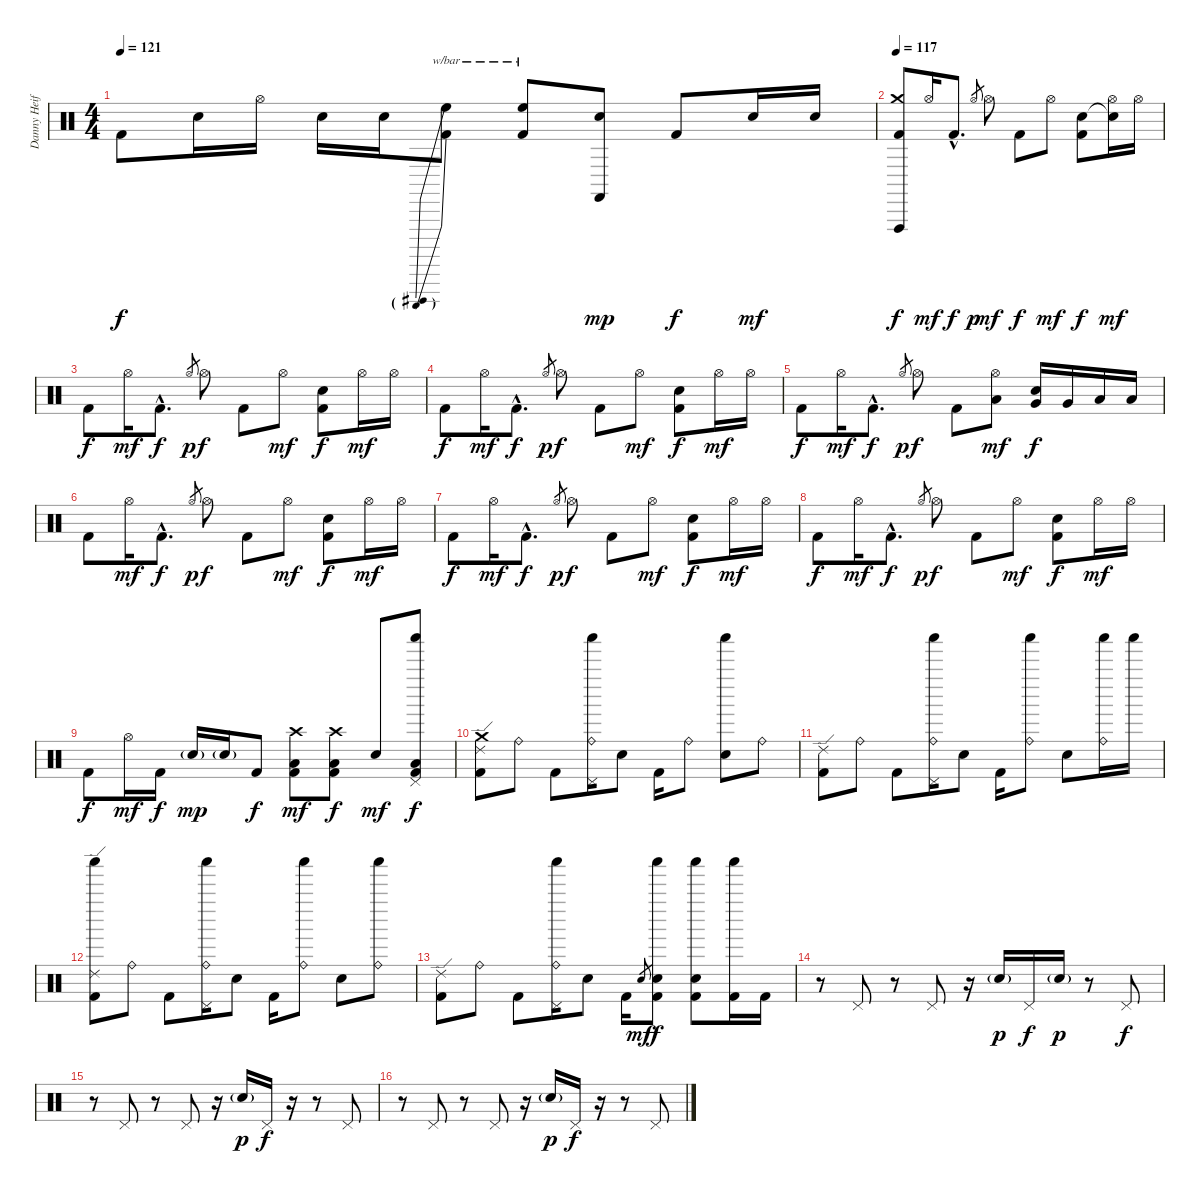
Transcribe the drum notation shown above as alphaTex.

\track ("Danny Heifetz - Drums" "Danny Heif") {instrument percussion}
\staff {score}
\articulation defaults
\ts (4 4)
\tempo 121
\clef neutral
\ks c "Kick (hit) 2".8{dy f} "Electric Snare (hit)".16 "Hi-Hat (open)".16 "Electric Snare (hit)".16 "Electric Snare (hit)".16
("High Floor Tom (hit)" "Kick (hit) 2").8{tbe (predive default 0 20 60 20)} ("High Floor Tom (hit)" "Kick (hit) 2").8{tbe (hold default 0 20 60 20)} ("Castanets (hit)" "Electric Snare (hit)").8{dy mp} "Kick (hit) 2".8{dy f} "Electric Snare (hit)".16{dy mf} "Electric Snare (hit)".16 |
\tempo 117
("Crash medium (hit)" "Vibraslap (hit)" "Kick (hit) 2").8{dy f} "Hi-Hat (open)".16{dy mf} "Kick (hit) 2"{hac}.8{d dy f} "Hi-Hat (open)".8{gr dy p} "Hi-Hat (open)".8{dy mf} "Kick (hit) 2".8{dy f} "Hi-Hat (open)".8{dy mf} ("Electric Snare (hit)" "Kick (hit) 2").8{dy f} ("Snare (hit)"{t} "Hi-Hat (open)").16{dy mf} "Hi-Hat (open)".16 |
"Kick (hit) 2".8{dy f} "Hi-Hat (open)".16{dy mf} "Kick (hit) 2"{hac}.8{d dy f} "Hi-Hat (open)".8{gr dy p} "Hi-Hat (open)".8{dy f} "Kick (hit) 2".8 "Hi-Hat (open)".8{dy mf} ("Electric Snare (hit)" "Kick (hit) 2").8{dy f} "Hi-Hat (open)".16{dy mf} "Hi-Hat (open)".16 |
"Kick (hit) 2".8{dy f} "Hi-Hat (open)".16{dy mf} "Kick (hit) 2"{hac}.8{d dy f} "Hi-Hat (open)".8{gr dy p} "Hi-Hat (open)".8{dy f} "Kick (hit) 2".8 "Hi-Hat (open)".8{dy mf} ("Electric Snare (hit)" "Kick (hit) 2").8{dy f} "Hi-Hat (open)".16{dy mf} "Hi-Hat (open)".16 |
"Kick (hit) 2".8{dy f} "Hi-Hat (open)".16{dy mf} "Kick (hit) 2"{hac}.8{d dy f} "Hi-Hat (open)".8{gr dy p} "Hi-Hat (open)".8{dy f} "Kick (hit) 2".8 ("Hi-Hat (open)" "Low Tom (hit)").8{dy mf} ("Electric Snare (hit)" "Very Low Tom (hit)").16{dy f} "Very Low Tom (hit)".16 "Low Floor Tom (hit)".16 "Low Floor Tom (hit)".16 |
"Kick (hit) 2".8 "Hi-Hat (open)".16{dy mf} "Kick (hit) 2"{hac}.8{d dy f} "Hi-Hat (open)".8{gr dy p} "Hi-Hat (open)".8{dy f} "Kick (hit) 2".8 "Hi-Hat (open)".8{dy mf} ("Electric Snare (hit)" "Kick (hit) 2").8{dy f} "Hi-Hat (open)".16{dy mf} "Hi-Hat (open)".16 |
"Kick (hit) 2".8{dy f} "Hi-Hat (open)".16{dy mf} "Kick (hit) 2"{hac}.8{d dy f} "Hi-Hat (open)".8{gr dy p} "Hi-Hat (open)".8{dy f} "Kick (hit) 2".8 "Hi-Hat (open)".8{dy mf} ("Electric Snare (hit)" "Kick (hit) 2").8{dy f} "Hi-Hat (open)".16{dy mf} "Hi-Hat (open)".16 |
"Kick (hit) 2".8{dy f} "Hi-Hat (open)".16{dy mf} "Kick (hit) 2"{hac}.8{d dy f} "Hi-Hat (open)".8{gr dy p} "Hi-Hat (open)".8{dy f} "Kick (hit) 2".8 "Hi-Hat (open)".8{dy mf} ("Electric Snare (hit)" "Kick (hit) 2").8{dy f} "Hi-Hat (open)".16{dy mf} "Hi-Hat (open)".16 |
"Kick (hit) 2".8{dy f} "Hi-Hat (open)".16{dy mf} "Kick (hit) 2".16{dy f} "Electric Snare (hit)"{g}.16{dy mp} "Electric Snare (hit)"{g}.16 "Kick (hit) 2".8{dy f} ("Crash high (hit)" "Low Tom (hit)" "Kick (hit) 2").8{dy mf} ("Crash high (hit)" "Low Tom (hit)" "Kick (hit) 2").8{dy f} "Electric Snare (hit)".8{dy mf} ("Shaker (hit)" "Low Tom (hit)" "Pedal Hi-Hat (hit)" "Kick (hit) 2").8{dy f} |
("Crash medium (hit)" "Ride (edge) 2" "Kick (hit) 2").8 "Ride (bell)".8 "Kick (hit) 2".8 ("Shaker (hit)" "Ride (bell)" "Pedal Hi-Hat (hit)").16 "Electric Snare (hit)".8 "Kick (hit) 2".16 "Ride (bell)".8 ("Shaker (hit)" "Electric Snare (hit)").8 "Ride (bell)".8 |
("Ride (edge) 2" "Kick (hit) 2").8 "Ride (bell)".8 "Kick (hit) 2".8 ("Shaker (hit)" "Ride (bell)" "Pedal Hi-Hat (hit)").16 "Electric Snare (hit)".8 "Kick (hit) 2".16 ("Shaker (hit)" "Ride (bell)").8 "Electric Snare (hit)".8 ("Shaker (hit)" "Ride (bell)").16 "Shaker (hit)".16 |
("Shaker (hit)" "Ride (edge) 2" "Kick (hit) 2").8 "Ride (bell)".8 "Kick (hit) 2".8 ("Shaker (hit)" "Ride (bell)" "Pedal Hi-Hat (hit)").16 "Electric Snare (hit)".8 "Kick (hit) 2".16 ("Shaker (hit)" "Ride (bell)").8 "Electric Snare (hit)".8 ("Shaker (hit)" "Ride (bell)").8 |
("Ride (edge) 2" "Kick (hit) 2").8 "Ride (bell)".8 "Kick (hit) 2".8 ("Shaker (hit)" "Ride (bell)" "Pedal Hi-Hat (hit)").16 "Electric Snare (hit)".8 "Kick (hit) 2".16 "Electric Snare (hit)".8{gr dy mf} ("Shaker (hit)" "Electric Snare (hit)" "Kick (hit) 2").8{dy f} ("Shaker (hit)" "Electric Snare (hit)" "Kick (hit) 2").8 ("Shaker (hit)" "Kick (hit) 2").16 "Kick (hit) 2".16 |
r.8{volume 15} "Pedal Hi-Hat (hit)".8 r.8 "Pedal Hi-Hat (hit)".8 r.16 "Electric Snare (hit)"{g}.16{dy p} "Pedal Hi-Hat (hit)".16{dy f} "Electric Snare (hit)"{g}.16{dy p} r.8 "Pedal Hi-Hat (hit)".8{dy f} |
r.8 "Pedal Hi-Hat (hit)".8 r.8 "Pedal Hi-Hat (hit)".8 r.16 "Electric Snare (hit)"{g}.16{dy p} "Pedal Hi-Hat (hit)".16{dy f} r.16 r.8 "Pedal Hi-Hat (hit)".8 |
r.8 "Pedal Hi-Hat (hit)".8 r.8 "Pedal Hi-Hat (hit)".8 r.16 "Electric Snare (hit)"{g}.16{dy p} "Pedal Hi-Hat (hit)".16{dy f} r.16 r.8 "Pedal Hi-Hat (hit)".8
